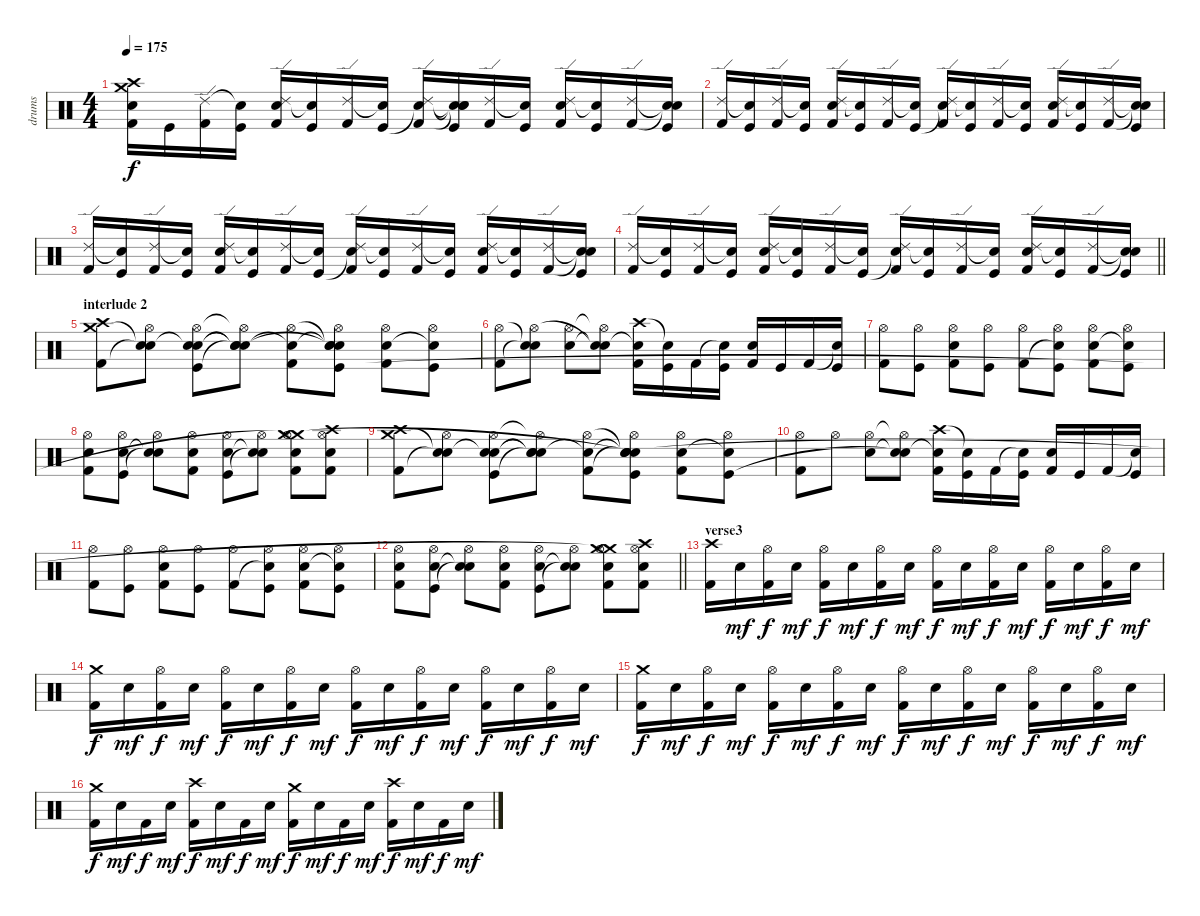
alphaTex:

\track ("drums" "drums") {instrument percussion}
\staff {score}
\articulation defaults
\ts (4 4)
\tempo 175
\clef neutral
\ks c
("Crash high (hit)" "Crash medium (hit)" "Snare (hit)"{t} "Kick (hit) 2").16{dy f} "Kick (hit)".16 ("Ride (edge) 2" "Kick (hit) 2").16 ("Snare (hit)"{t} "Kick (hit)").16 ("Ride (edge) 2" "Snare (hit) 2" "Kick (hit) 2").16 ("Snare (hit)"{t} "Kick (hit)").16 ("Ride (edge) 2" "Kick (hit) 2").16 ("Snare (hit)"{t} "Kick (hit)").16 ("Ride (edge) 2" "Snare (hit)"{t} "Kick (hit) 2").16 ("Snare (hit)"{t} "Snare (hit)"{t} "Snare (hit)"{t} "Kick (hit)").16 ("Ride (edge) 2" "Kick (hit) 2").16 ("Snare (hit)"{t} "Kick (hit)").16 ("Ride (edge) 2" "Snare (hit) 2" "Kick (hit) 2").16 ("Snare (hit)"{t} "Kick (hit)").16 ("Ride (edge) 2" "Kick (hit) 2").16 ("Snare (hit)"{t} "Snare (hit)"{t} "Kick (hit)").16 |
("Ride (edge) 2" "Kick (hit) 2").16 ("Snare (hit)"{t} "Kick (hit)").16 ("Ride (edge) 2" "Kick (hit) 2").16 ("Snare (hit)"{t} "Kick (hit)").16 ("Ride (edge) 2" "Snare (hit) 2" "Kick (hit) 2").16 ("Snare (hit)"{t} "Kick (hit)").16 ("Ride (edge) 2" "Kick (hit) 2").16 ("Snare (hit)"{t} "Kick (hit)").16 ("Ride (edge) 2" "Snare (hit)"{t} "Kick (hit) 2").16 ("Snare (hit)"{t} "Kick (hit)").16 ("Ride (edge) 2" "Kick (hit) 2").16 ("Snare (hit)"{t} "Kick (hit)").16 ("Ride (edge) 2" "Snare (hit) 2" "Kick (hit) 2").16 ("Snare (hit)"{t} "Kick (hit)").16 ("Ride (edge) 2" "Kick (hit) 2").16 ("Snare (hit)"{t} "Snare (hit)"{t} "Kick (hit)").16 |
("Ride (edge) 2" "Kick (hit) 2").16 ("Snare (hit)"{t} "Kick (hit)").16 ("Ride (edge) 2" "Kick (hit) 2").16 ("Snare (hit)"{t} "Kick (hit)").16 ("Ride (edge) 2" "Snare (hit) 2" "Kick (hit) 2").16 ("Snare (hit)"{t} "Kick (hit)").16 ("Ride (edge) 2" "Kick (hit) 2").16 ("Snare (hit)"{t} "Kick (hit)").16 ("Ride (edge) 2" "Snare (hit)"{t} "Kick (hit) 2").16 ("Snare (hit)"{t} "Kick (hit)").16 ("Ride (edge) 2" "Kick (hit) 2").16 ("Snare (hit)"{t} "Kick (hit)").16 ("Ride (edge) 2" "Snare (hit) 2" "Kick (hit) 2").16 ("Snare (hit)"{t} "Kick (hit)").16 ("Ride (edge) 2" "Kick (hit) 2").16 ("Snare (hit)"{t} "Snare (hit)"{t} "Kick (hit)").16 |
\barLineRight lightlight
("Ride (edge) 2" "Kick (hit) 2").16 ("Snare (hit)"{t} "Kick (hit)").16 ("Ride (edge) 2" "Kick (hit) 2").16 ("Snare (hit)"{t} "Kick (hit)").16 ("Ride (edge) 2" "Snare (hit) 2" "Kick (hit) 2").16 ("Snare (hit)"{t} "Kick (hit)").16 ("Ride (edge) 2" "Kick (hit) 2").16 ("Snare (hit)"{t} "Kick (hit)").16 ("Ride (edge) 2" "Snare (hit)"{t} "Kick (hit) 2").16 ("Snare (hit)"{t} "Kick (hit)").16 ("Ride (edge) 2" "Kick (hit) 2").16 ("Snare (hit)"{t} "Kick (hit)").16 ("Ride (edge) 2" "Snare (hit) 2" "Kick (hit) 2").16 ("Snare (hit)"{t} "Kick (hit)").16 ("Ride (edge) 2" "Kick (hit) 2").16 ("Snare (hit)"{t} "Snare (hit)"{t} "Kick (hit)").16 |
\section ("" "interlude 2")
("Crash medium (hit)" "Crash high (hit)" "Kick (hit) 2").8 ("Snare (hit)"{t} "Hi-Hat (open)" "Snare (hit)"{t}).8 ("Snare (hit)"{t} "Hi-Hat (open)" "Snare (hit) 2" "Kick (hit)").8 ("Snare (hit)"{t} "Hi-Hat (open)"{t} "Snare (hit)"{t} "Snare (hit)"{t}).8 ("Snare (hit)"{t} "Hi-Hat (open)" "Kick (hit) 2").8 ("Snare (hit)"{t} "Snare (hit)"{t} "Hi-Hat (open)" "Snare (hit)"{t} "Kick (hit)").8 ("Hi-Hat (open)" "Snare (hit) 2" "Kick (hit) 2").8 ("Hi-Hat (open)" "Snare (hit)"{t} "Kick (hit)").8 |
("Hi-Hat (open)" "Kick (hit) 2").8 ("Snare (hit)"{t} "Snare (hit)"{t} "Hi-Hat (open)").8 ("Hi-Hat (open)" "Snare (hit) 2").8 ("Hi-Hat (open)"{t} "Snare (hit)"{t} "Snare (hit)"{t}).8 ("Crash high (hit)" "Snare (hit)"{t} "Kick (hit) 2").16 ("Snare (hit)"{t} "Kick (hit)").16 "Kick (hit) 2".16 ("Snare (hit)"{t} "Kick (hit)").16 ("Snare (hit) 2" "Kick (hit) 2").16 "Kick (hit)".16 "Kick (hit) 2".16 ("Snare (hit)"{t} "Kick (hit)").16 |
("Hi-Hat (open)" "Kick (hit) 2").8 ("Hi-Hat (open)" "Kick (hit)").8 ("Hi-Hat (open)" "Snare (hit) 2" "Kick (hit) 2").8 ("Hi-Hat (open)" "Kick (hit)").8 ("Hi-Hat (open)" "Kick (hit) 2").8 ("Hi-Hat (open)" "Snare (hit)"{t} "Kick (hit)").8 ("Hi-Hat (open)" "Snare (hit) 2" "Kick (hit) 2").8 ("Hi-Hat (open)" "Snare (hit)"{t} "Kick (hit)").8 |
("Hi-Hat (open)" "Snare (hit) 2" "Kick (hit) 2").8 ("Hi-Hat (open)" "Snare (hit) 2" "Kick (hit)").8 ("Hi-Hat (open)" "Snare (hit)"{t} "Snare (hit)"{t}).8 ("Hi-Hat (open)" "Snare (hit) 2" "Kick (hit) 2").8 ("Hi-Hat (open)" "Snare (hit) 2" "Kick (hit)").8 ("Hi-Hat (open)" "Snare (hit)"{t} "Snare (hit)"{t}).8 ("Crash medium (hit)" "Kick (hit) 2" "Hi-Hat (open)" "Snare (hit) 2" "Crash medium (hit)"{t}).8 ("Crash high (hit)" "Kick (hit) 2" "Hi-Hat (open)" "Snare (hit) 2").8 |
("Crash medium (hit)" "Crash high (hit)" "Kick (hit) 2").8 ("Snare (hit)"{t} "Hi-Hat (open)" "Snare (hit)"{t}).8 ("Snare (hit)"{t} "Hi-Hat (open)" "Snare (hit) 2" "Kick (hit)").8 ("Snare (hit)"{t} "Hi-Hat (open)"{t} "Snare (hit)"{t} "Snare (hit)"{t}).8 ("Snare (hit)"{t} "Hi-Hat (open)" "Kick (hit) 2").8 ("Snare (hit)"{t} "Snare (hit)"{t} "Snare (hit)"{t} "Hi-Hat (open)" "Snare (hit)"{t} "Kick (hit)").8 ("Hi-Hat (open)" "Snare (hit) 2" "Kick (hit) 2").8 ("Hi-Hat (open)" "Snare (hit)"{t} "Kick (hit)").8 |
("Hi-Hat (open)" "Kick (hit) 2").8 "Hi-Hat (open)".8 ("Hi-Hat (open)" "Snare (hit) 2").8 ("Hi-Hat (open)"{t} "Snare (hit)"{t} "Snare (hit)"{t}).8 ("Crash high (hit)" "Snare (hit)"{t} "Kick (hit) 2").16 ("Snare (hit)"{t} "Kick (hit)").16 "Kick (hit) 2".16 ("Snare (hit)"{t} "Kick (hit)").16 ("Snare (hit) 2" "Kick (hit) 2").16 "Kick (hit)".16 "Kick (hit) 2".16 ("Snare (hit)"{t} "Kick (hit)").16 |
("Hi-Hat (open)" "Kick (hit) 2").8 ("Hi-Hat (open)" "Kick (hit)").8 ("Hi-Hat (open)" "Snare (hit) 2" "Kick (hit) 2").8 ("Hi-Hat (open)" "Kick (hit)").8 ("Hi-Hat (open)" "Kick (hit) 2").8 ("Hi-Hat (open)" "Snare (hit)"{t} "Kick (hit)").8 ("Hi-Hat (open)" "Snare (hit) 2" "Kick (hit) 2").8 ("Hi-Hat (open)" "Snare (hit)"{t} "Kick (hit)").8 |
\barLineRight lightlight
("Hi-Hat (open)" "Snare (hit) 2" "Kick (hit) 2").8 ("Hi-Hat (open)" "Snare (hit) 2" "Kick (hit)").8 ("Hi-Hat (open)" "Snare (hit)"{t} "Snare (hit)"{t}).8 ("Hi-Hat (open)" "Snare (hit) 2" "Kick (hit) 2").8 ("Hi-Hat (open)" "Snare (hit) 2" "Kick (hit)").8 ("Hi-Hat (open)" "Snare (hit)"{t} "Snare (hit)"{t}).8 ("Crash medium (hit)" "Kick (hit) 2" "Hi-Hat (open)" "Snare (hit) 2" "Crash medium (hit)"{t}).8 ("Crash high (hit)" "Kick (hit) 2" "Hi-Hat (open)" "Snare (hit) 2").8 |
\section ("" "verse3")
("Crash high (hit)" "Kick (hit) 2").16 "Electric Snare (hit)".16{dy mf} ("Hi-Hat (open)" "Kick (hit) 2").16{dy f} "Electric Snare (hit)".16{dy mf} ("Hi-Hat (open)" "Kick (hit) 2").16{dy f} "Electric Snare (hit)".16{dy mf} ("Hi-Hat (open)" "Kick (hit) 2").16{dy f} "Electric Snare (hit)".16{dy mf} ("Hi-Hat (open)" "Kick (hit) 2").16{dy f} "Electric Snare (hit)".16{dy mf} ("Hi-Hat (open)" "Kick (hit) 2").16{dy f} "Electric Snare (hit)".16{dy mf} ("Hi-Hat (open)" "Kick (hit) 2").16{dy f} "Electric Snare (hit)".16{dy mf} ("Hi-Hat (open)" "Kick (hit) 2").16{dy f} "Electric Snare (hit)".16{dy mf} |
("Crash medium (hit)" "Kick (hit) 2").16{dy f} "Electric Snare (hit)".16{dy mf} ("Hi-Hat (open)" "Kick (hit) 2").16{dy f} "Electric Snare (hit)".16{dy mf} ("Hi-Hat (open)" "Kick (hit) 2").16{dy f} "Electric Snare (hit)".16{dy mf} ("Hi-Hat (open)" "Kick (hit) 2").16{dy f} "Electric Snare (hit)".16{dy mf} ("Hi-Hat (open)" "Kick (hit) 2").16{dy f} "Electric Snare (hit)".16{dy mf} ("Hi-Hat (open)" "Kick (hit) 2").16{dy f} "Electric Snare (hit)".16{dy mf} ("Hi-Hat (open)" "Kick (hit) 2").16{dy f} "Electric Snare (hit)".16{dy mf} ("Hi-Hat (open)" "Kick (hit) 2").16{dy f} "Electric Snare (hit)".16{dy mf} |
("Crash medium (hit)" "Kick (hit) 2").16{dy f} "Electric Snare (hit)".16{dy mf} ("Hi-Hat (open)" "Kick (hit) 2").16{dy f} "Electric Snare (hit)".16{dy mf} ("Hi-Hat (open)" "Kick (hit) 2").16{dy f} "Electric Snare (hit)".16{dy mf} ("Hi-Hat (open)" "Kick (hit) 2").16{dy f} "Electric Snare (hit)".16{dy mf} ("Hi-Hat (open)" "Kick (hit) 2").16{dy f} "Electric Snare (hit)".16{dy mf} ("Hi-Hat (open)" "Kick (hit) 2").16{dy f} "Electric Snare (hit)".16{dy mf} ("Hi-Hat (open)" "Kick (hit) 2").16{dy f} "Electric Snare (hit)".16{dy mf} ("Hi-Hat (open)" "Kick (hit) 2").16{dy f} "Electric Snare (hit)".16{dy mf} |
("Crash medium (hit)" "Kick (hit) 2").16{dy f} "Electric Snare (hit)".16{dy mf} "Kick (hit) 2".16{dy f} "Electric Snare (hit)".16{dy mf} ("Crash high (hit)" "Kick (hit) 2").16{dy f} "Electric Snare (hit)".16{dy mf} "Kick (hit) 2".16{dy f} "Electric Snare (hit)".16{dy mf} ("Crash medium (hit)" "Kick (hit) 2").16{dy f} "Electric Snare (hit)".16{dy mf} "Kick (hit) 2".16{dy f} "Electric Snare (hit)".16{dy mf} ("Crash high (hit)" "Kick (hit) 2").16{dy f} "Electric Snare (hit)".16{dy mf} "Kick (hit) 2".16{dy f} "Electric Snare (hit)".16{dy mf}
